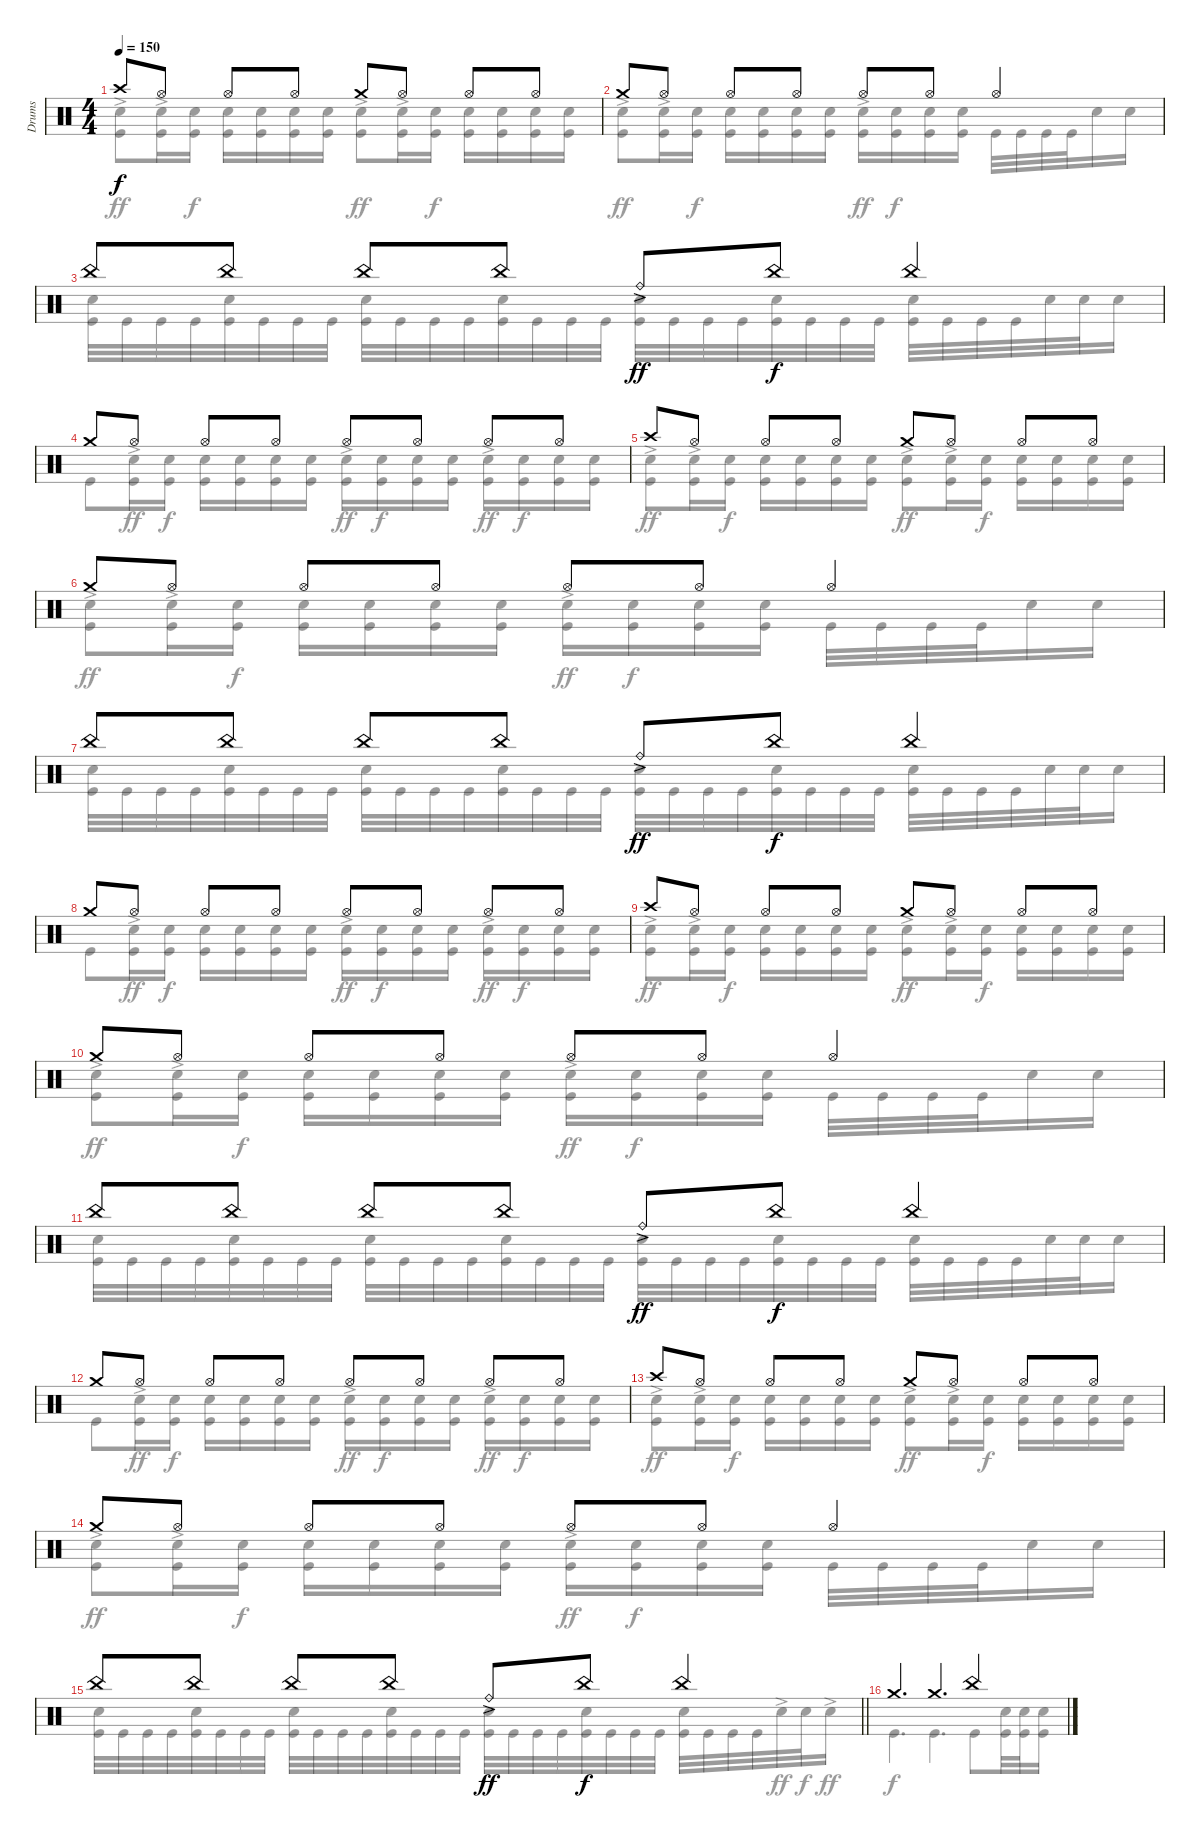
\track ("Drums" "Drums") {instrument percussion}
\staff {score}
\articulation defaults
\voice
\ts (4 4)
\tempo 150
\clef neutral
\ks c "Crash high (hit)".8{dy f} "Hi-Hat (open)".8 "Hi-Hat (open)".8 "Hi-Hat (open)".8 "Crash medium (hit)".8 "Hi-Hat (open)".8 "Hi-Hat (open)".8 "Hi-Hat (open)".8
|
"Crash medium (hit)".8 "Hi-Hat (open)".8 "Hi-Hat (open)".8 "Hi-Hat (open)".8 "Hi-Hat (open)".8 "Hi-Hat (open)".8 "Hi-Hat (open)".4 |
"China (hit)".8 "China (hit)".8 "China (hit)".8 "China (hit)".8 "Ride (bell)"{ac}.8{dy ff} "China (hit)".8{dy f} "China (hit)".4 |
"Crash medium (hit)".8 "Hi-Hat (open)".8 "Hi-Hat (open)".8 "Hi-Hat (open)".8 "Hi-Hat (open)".8 "Hi-Hat (open)".8 "Hi-Hat (open)".8 "Hi-Hat (open)".8 |
"Crash high (hit)".8 "Hi-Hat (open)".8 "Hi-Hat (open)".8 "Hi-Hat (open)".8 "Crash medium (hit)".8 "Hi-Hat (open)".8 "Hi-Hat (open)".8 "Hi-Hat (open)".8 |
"Crash medium (hit)".8 "Hi-Hat (open)".8 "Hi-Hat (open)".8 "Hi-Hat (open)".8 "Hi-Hat (open)".8 "Hi-Hat (open)".8 "Hi-Hat (open)".4 |
"China (hit)".8 "China (hit)".8 "China (hit)".8 "China (hit)".8 "Ride (bell)"{ac}.8{dy ff} "China (hit)".8{dy f} "China (hit)".4 |
"Crash medium (hit)".8 "Hi-Hat (open)".8 "Hi-Hat (open)".8 "Hi-Hat (open)".8 "Hi-Hat (open)".8 "Hi-Hat (open)".8 "Hi-Hat (open)".8 "Hi-Hat (open)".8 |
"Crash high (hit)".8 "Hi-Hat (open)".8 "Hi-Hat (open)".8 "Hi-Hat (open)".8 "Crash medium (hit)".8 "Hi-Hat (open)".8 "Hi-Hat (open)".8 "Hi-Hat (open)".8 |
"Crash medium (hit)".8 "Hi-Hat (open)".8 "Hi-Hat (open)".8 "Hi-Hat (open)".8 "Hi-Hat (open)".8 "Hi-Hat (open)".8 "Hi-Hat (open)".4 |
"China (hit)".8 "China (hit)".8 "China (hit)".8 "China (hit)".8 "Ride (bell)"{ac}.8{dy ff} "China (hit)".8{dy f} "China (hit)".4 |
"Crash medium (hit)".8 "Hi-Hat (open)".8 "Hi-Hat (open)".8 "Hi-Hat (open)".8 "Hi-Hat (open)".8 "Hi-Hat (open)".8 "Hi-Hat (open)".8 "Hi-Hat (open)".8 |
"Crash high (hit)".8 "Hi-Hat (open)".8 "Hi-Hat (open)".8 "Hi-Hat (open)".8 "Crash medium (hit)".8 "Hi-Hat (open)".8 "Hi-Hat (open)".8 "Hi-Hat (open)".8 |
"Crash medium (hit)".8 "Hi-Hat (open)".8 "Hi-Hat (open)".8 "Hi-Hat (open)".8 "Hi-Hat (open)".8 "Hi-Hat (open)".8 "Hi-Hat (open)".4 |
\barLineRight lightlight "China (hit)".8 "China (hit)".8 "China (hit)".8 "China (hit)".8 "Ride (bell)"{ac}.8{dy ff} "China (hit)".8{dy f} "China (hit)".4
|
\section ("" "")
"Crash medium (hit)".4{d} "Crash medium (hit)".4{d} "China (hit)".4
\voice
\clef neutral
\ottava regular
\simile none
\ks c
("Snare (hit) 2"{ac} "Kick (hit)").8{dy ff} ("Snare (hit) 2"{ac} "Kick (hit)").16 ("Snare (hit) 2" "Kick (hit)").16{dy f} ("Snare (hit) 2" "Kick (hit)").16 ("Snare (hit) 2" "Kick (hit)").16 ("Snare (hit) 2" "Kick (hit)").16 ("Snare (hit) 2" "Kick (hit)").16 ("Snare (hit) 2"{ac} "Kick (hit)").8{dy ff} ("Snare (hit) 2"{ac} "Kick (hit)").16 ("Snare (hit) 2" "Kick (hit)").16{dy f} ("Snare (hit) 2" "Kick (hit)").16 ("Snare (hit) 2" "Kick (hit)").16 ("Snare (hit) 2" "Kick (hit)").16 ("Snare (hit) 2" "Kick (hit)").16 |
("Snare (hit) 2"{ac} "Kick (hit)").8{dy ff} ("Snare (hit) 2"{ac} "Kick (hit)").16 ("Snare (hit) 2" "Kick (hit)").16{dy f} ("Snare (hit) 2" "Kick (hit)").16 ("Snare (hit) 2" "Kick (hit)").16 ("Snare (hit) 2" "Kick (hit)").16 ("Snare (hit) 2" "Kick (hit)").16 ("Snare (hit) 2"{ac} "Kick (hit)").16{dy ff} ("Snare (hit) 2" "Kick (hit)").16{dy f} ("Snare (hit) 2" "Kick (hit)").16 ("Snare (hit) 2" "Kick (hit)").16 "Kick (hit)".32 "Kick (hit)".32 "Kick (hit)".32 "Kick (hit)".32 "Snare (hit) 2".16 "Snare (hit) 2".16 |
("Snare (hit) 2" "Kick (hit)").32 "Kick (hit)".32 "Kick (hit)".32 "Kick (hit)".32 ("Snare (hit) 2" "Kick (hit)").32 "Kick (hit)".32 "Kick (hit)".32 "Kick (hit)".32 ("Snare (hit) 2" "Kick (hit)").32 "Kick (hit)".32 "Kick (hit)".32 "Kick (hit)".32 ("Snare (hit) 2" "Kick (hit)").32 "Kick (hit)".32 "Kick (hit)".32 "Kick (hit)".32 ("Snare (hit) 2" "Kick (hit)").32 "Kick (hit)".32 "Kick (hit)".32 "Kick (hit)".32 ("Snare (hit) 2" "Kick (hit)").32 "Kick (hit)".32 "Kick (hit)".32 "Kick (hit)".32 ("Snare (hit) 2" "Kick (hit)").32 "Kick (hit)".32 "Kick (hit)".32 "Kick (hit)".32 "Snare (hit) 2".32 "Snare (hit) 2".32 "Snare (hit) 2".16 |
"Kick (hit)".8 ("Snare (hit) 2"{ac} "Kick (hit)").16{dy ff} ("Snare (hit) 2" "Kick (hit)").16{dy f} ("Snare (hit) 2" "Kick (hit)").16 ("Snare (hit) 2" "Kick (hit)").16 ("Snare (hit) 2" "Kick (hit)").16 ("Snare (hit) 2" "Kick (hit)").16 ("Snare (hit) 2"{ac} "Kick (hit)").16{dy ff} ("Snare (hit) 2" "Kick (hit)").16{dy f} ("Snare (hit) 2" "Kick (hit)").16 ("Snare (hit) 2" "Kick (hit)").16 ("Snare (hit) 2"{ac} "Kick (hit)").16{dy ff} ("Snare (hit) 2" "Kick (hit)").16{dy f} ("Snare (hit) 2" "Kick (hit)").16 ("Snare (hit) 2" "Kick (hit)").16 |
("Snare (hit) 2"{ac} "Kick (hit)").8{dy ff} ("Snare (hit) 2"{ac} "Kick (hit)").16 ("Snare (hit) 2" "Kick (hit)").16{dy f} ("Snare (hit) 2" "Kick (hit)").16 ("Snare (hit) 2" "Kick (hit)").16 ("Snare (hit) 2" "Kick (hit)").16 ("Snare (hit) 2" "Kick (hit)").16 ("Snare (hit) 2"{ac} "Kick (hit)").8{dy ff} ("Snare (hit) 2"{ac} "Kick (hit)").16 ("Snare (hit) 2" "Kick (hit)").16{dy f} ("Snare (hit) 2" "Kick (hit)").16 ("Snare (hit) 2" "Kick (hit)").16 ("Snare (hit) 2" "Kick (hit)").16 ("Snare (hit) 2" "Kick (hit)").16 |
("Snare (hit) 2"{ac} "Kick (hit)").8{dy ff} ("Snare (hit) 2"{ac} "Kick (hit)").16 ("Snare (hit) 2" "Kick (hit)").16{dy f} ("Snare (hit) 2" "Kick (hit)").16 ("Snare (hit) 2" "Kick (hit)").16 ("Snare (hit) 2" "Kick (hit)").16 ("Snare (hit) 2" "Kick (hit)").16 ("Snare (hit) 2"{ac} "Kick (hit)").16{dy ff} ("Snare (hit) 2" "Kick (hit)").16{dy f} ("Snare (hit) 2" "Kick (hit)").16 ("Snare (hit) 2" "Kick (hit)").16 "Kick (hit)".32 "Kick (hit)".32 "Kick (hit)".32 "Kick (hit)".32 "Snare (hit) 2".16 "Snare (hit) 2".16 |
("Snare (hit) 2" "Kick (hit)").32 "Kick (hit)".32 "Kick (hit)".32 "Kick (hit)".32 ("Snare (hit) 2" "Kick (hit)").32 "Kick (hit)".32 "Kick (hit)".32 "Kick (hit)".32 ("Snare (hit) 2" "Kick (hit)").32 "Kick (hit)".32 "Kick (hit)".32 "Kick (hit)".32 ("Snare (hit) 2" "Kick (hit)").32 "Kick (hit)".32 "Kick (hit)".32 "Kick (hit)".32 ("Snare (hit) 2" "Kick (hit)").32 "Kick (hit)".32 "Kick (hit)".32 "Kick (hit)".32 ("Snare (hit) 2" "Kick (hit)").32 "Kick (hit)".32 "Kick (hit)".32 "Kick (hit)".32 ("Snare (hit) 2" "Kick (hit)").32 "Kick (hit)".32 "Kick (hit)".32 "Kick (hit)".32 "Snare (hit) 2".32 "Snare (hit) 2".32 "Snare (hit) 2".16 |
"Kick (hit)".8 ("Snare (hit) 2"{ac} "Kick (hit)").16{dy ff} ("Snare (hit) 2" "Kick (hit)").16{dy f} ("Snare (hit) 2" "Kick (hit)").16 ("Snare (hit) 2" "Kick (hit)").16 ("Snare (hit) 2" "Kick (hit)").16 ("Snare (hit) 2" "Kick (hit)").16 ("Snare (hit) 2"{ac} "Kick (hit)").16{dy ff} ("Snare (hit) 2" "Kick (hit)").16{dy f} ("Snare (hit) 2" "Kick (hit)").16 ("Snare (hit) 2" "Kick (hit)").16 ("Snare (hit) 2"{ac} "Kick (hit)").16{dy ff} ("Snare (hit) 2" "Kick (hit)").16{dy f} ("Snare (hit) 2" "Kick (hit)").16 ("Snare (hit) 2" "Kick (hit)").16 |
("Snare (hit) 2"{ac} "Kick (hit)").8{dy ff} ("Snare (hit) 2"{ac} "Kick (hit)").16 ("Snare (hit) 2" "Kick (hit)").16{dy f} ("Snare (hit) 2" "Kick (hit)").16 ("Snare (hit) 2" "Kick (hit)").16 ("Snare (hit) 2" "Kick (hit)").16 ("Snare (hit) 2" "Kick (hit)").16 ("Snare (hit) 2"{ac} "Kick (hit)").8{dy ff} ("Snare (hit) 2"{ac} "Kick (hit)").16 ("Snare (hit) 2" "Kick (hit)").16{dy f} ("Snare (hit) 2" "Kick (hit)").16 ("Snare (hit) 2" "Kick (hit)").16 ("Snare (hit) 2" "Kick (hit)").16 ("Snare (hit) 2" "Kick (hit)").16 |
("Snare (hit) 2"{ac} "Kick (hit)").8{dy ff} ("Snare (hit) 2"{ac} "Kick (hit)").16 ("Snare (hit) 2" "Kick (hit)").16{dy f} ("Snare (hit) 2" "Kick (hit)").16 ("Snare (hit) 2" "Kick (hit)").16 ("Snare (hit) 2" "Kick (hit)").16 ("Snare (hit) 2" "Kick (hit)").16 ("Snare (hit) 2"{ac} "Kick (hit)").16{dy ff} ("Snare (hit) 2" "Kick (hit)").16{dy f} ("Snare (hit) 2" "Kick (hit)").16 ("Snare (hit) 2" "Kick (hit)").16 "Kick (hit)".32 "Kick (hit)".32 "Kick (hit)".32 "Kick (hit)".32 "Snare (hit) 2".16 "Snare (hit) 2".16 |
("Snare (hit) 2" "Kick (hit)").32 "Kick (hit)".32 "Kick (hit)".32 "Kick (hit)".32 ("Snare (hit) 2" "Kick (hit)").32 "Kick (hit)".32 "Kick (hit)".32 "Kick (hit)".32 ("Snare (hit) 2" "Kick (hit)").32 "Kick (hit)".32 "Kick (hit)".32 "Kick (hit)".32 ("Snare (hit) 2" "Kick (hit)").32 "Kick (hit)".32 "Kick (hit)".32 "Kick (hit)".32 ("Snare (hit) 2" "Kick (hit)").32 "Kick (hit)".32 "Kick (hit)".32 "Kick (hit)".32 ("Snare (hit) 2" "Kick (hit)").32 "Kick (hit)".32 "Kick (hit)".32 "Kick (hit)".32 ("Snare (hit) 2" "Kick (hit)").32 "Kick (hit)".32 "Kick (hit)".32 "Kick (hit)".32 "Snare (hit) 2".32 "Snare (hit) 2".32 "Snare (hit) 2".16 |
"Kick (hit)".8 ("Snare (hit) 2"{ac} "Kick (hit)").16{dy ff} ("Snare (hit) 2" "Kick (hit)").16{dy f} ("Snare (hit) 2" "Kick (hit)").16 ("Snare (hit) 2" "Kick (hit)").16 ("Snare (hit) 2" "Kick (hit)").16 ("Snare (hit) 2" "Kick (hit)").16 ("Snare (hit) 2"{ac} "Kick (hit)").16{dy ff} ("Snare (hit) 2" "Kick (hit)").16{dy f} ("Snare (hit) 2" "Kick (hit)").16 ("Snare (hit) 2" "Kick (hit)").16 ("Snare (hit) 2"{ac} "Kick (hit)").16{dy ff} ("Snare (hit) 2" "Kick (hit)").16{dy f} ("Snare (hit) 2" "Kick (hit)").16 ("Snare (hit) 2" "Kick (hit)").16 |
("Snare (hit) 2"{ac} "Kick (hit)").8{dy ff} ("Snare (hit) 2"{ac} "Kick (hit)").16 ("Snare (hit) 2" "Kick (hit)").16{dy f} ("Snare (hit) 2" "Kick (hit)").16 ("Snare (hit) 2" "Kick (hit)").16 ("Snare (hit) 2" "Kick (hit)").16 ("Snare (hit) 2" "Kick (hit)").16 ("Snare (hit) 2"{ac} "Kick (hit)").8{dy ff} ("Snare (hit) 2"{ac} "Kick (hit)").16 ("Snare (hit) 2" "Kick (hit)").16{dy f} ("Snare (hit) 2" "Kick (hit)").16 ("Snare (hit) 2" "Kick (hit)").16 ("Snare (hit) 2" "Kick (hit)").16 ("Snare (hit) 2" "Kick (hit)").16 |
("Snare (hit) 2"{ac} "Kick (hit)").8{dy ff} ("Snare (hit) 2"{ac} "Kick (hit)").16 ("Snare (hit) 2" "Kick (hit)").16{dy f} ("Snare (hit) 2" "Kick (hit)").16 ("Snare (hit) 2" "Kick (hit)").16 ("Snare (hit) 2" "Kick (hit)").16 ("Snare (hit) 2" "Kick (hit)").16 ("Snare (hit) 2"{ac} "Kick (hit)").16{dy ff} ("Snare (hit) 2" "Kick (hit)").16{dy f} ("Snare (hit) 2" "Kick (hit)").16 ("Snare (hit) 2" "Kick (hit)").16 "Kick (hit)".32 "Kick (hit)".32 "Kick (hit)".32 "Kick (hit)".32 "Snare (hit) 2".16 "Snare (hit) 2".16 |
\barLineRight lightlight
("Snare (hit) 2" "Kick (hit)").32 "Kick (hit)".32 "Kick (hit)".32 "Kick (hit)".32 ("Snare (hit) 2" "Kick (hit)").32 "Kick (hit)".32 "Kick (hit)".32 "Kick (hit)".32 ("Snare (hit) 2" "Kick (hit)").32 "Kick (hit)".32 "Kick (hit)".32 "Kick (hit)".32 ("Snare (hit) 2" "Kick (hit)").32 "Kick (hit)".32 "Kick (hit)".32 "Kick (hit)".32 ("Snare (hit) 2" "Kick (hit)").32 "Kick (hit)".32 "Kick (hit)".32 "Kick (hit)".32 ("Snare (hit) 2" "Kick (hit)").32 "Kick (hit)".32 "Kick (hit)".32 "Kick (hit)".32 ("Snare (hit) 2" "Kick (hit)").32 "Kick (hit)".32 "Kick (hit)".32 "Kick (hit)".32 "Snare (hit) 2"{ac}.32{dy ff} "Snare (hit) 2".32{dy f} "Snare (hit) 2"{ac}.16{dy ff} |
"Kick (hit)".4{d dy f} "Kick (hit)".4{d} "Kick (hit)".8 ("Snare (hit) 2" "Kick (hit)").32 ("Snare (hit) 2" "Kick (hit)").32 ("Snare (hit) 2" "Kick (hit)").16
